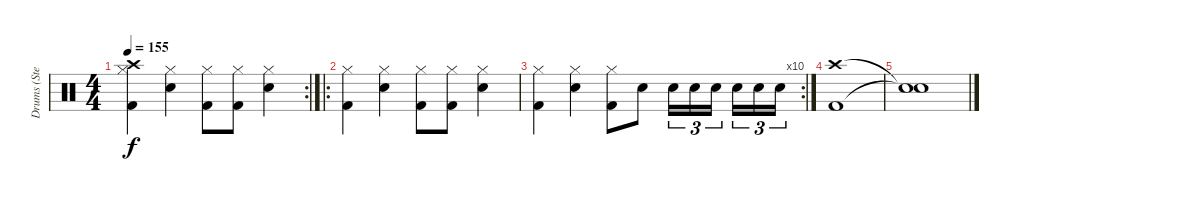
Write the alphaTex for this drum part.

\track ("Drums (Stephen Morris)" "Drums (Ste") {instrument percussion}
\staff {score}
\articulation defaults
\rc 2
\ts (4 4)
\tempo 155
\clef neutral
\ks c
("Crash high (hit)" "Kick (hit) 2" "Hi-Hat (closed)").4{dy f} ("Snare (hit) 2" "Hi-Hat (closed)").4 ("Kick (hit) 2" "Hi-Hat (closed)").8 ("Kick (hit) 2" "Hi-Hat (closed)").8 ("Snare (hit) 2" "Hi-Hat (closed)").4 |
\ro
("Kick (hit) 2" "Hi-Hat (closed)").4 ("Snare (hit) 2" "Hi-Hat (closed)").4 ("Kick (hit) 2" "Hi-Hat (closed)").8 ("Kick (hit) 2" "Hi-Hat (closed)").8 ("Snare (hit) 2" "Hi-Hat (closed)").4 |
\rc 10
("Kick (hit) 2" "Hi-Hat (closed)").4 ("Snare (hit) 2" "Hi-Hat (closed)").4 ("Kick (hit) 2" "Hi-Hat (closed)").8 "Snare (hit) 2".8 "Snare (hit) 2".16{tu (3 2)} "Snare (hit) 2".16{tu (3 2)} "Snare (hit) 2".16{tu (3 2) beam splitsecondary} "Snare (hit) 2".16{tu (3 2)} "Snare (hit) 2".16{tu (3 2)} "Snare (hit) 2".16{tu (3 2)} |
("Crash high (hit)" "Kick (hit) 2").1 |
("Snare (hit)"{t} "Snare (hit)"{t}).1
